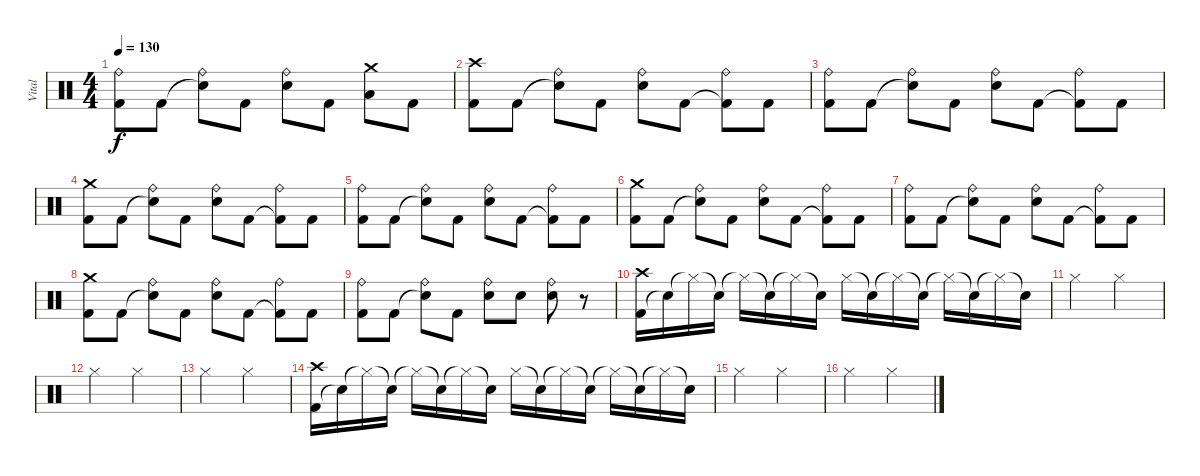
\track ("Vital" "Vital") {instrument percussion}
\staff {score}
\articulation defaults
\ts (4 4)
\tempo 130
\clef neutral
\ks c
("Kick (hit) 2" "Ride (bell)").8{dy f} "Kick (hit) 2".8 ("Snare (hit)"{t} "Ride (bell)").8 "Kick (hit) 2".8 ("Snare (hit) 2" "Ride (bell)").8 "Kick (hit) 2".8 ("Low Floor Tom (hit)" "Crash medium (hit)").8 "Kick (hit) 2".8 |
("Kick (hit) 2" "Crash high (hit)").8 "Kick (hit) 2".8 ("Snare (hit)"{t} "Ride (bell)").8 "Kick (hit) 2".8 ("Snare (hit) 2" "Ride (bell)").8 "Kick (hit) 2".8 ("Kick (hit) 2"{t} "Ride (bell)").8 "Kick (hit) 2".8 |
("Kick (hit) 2" "Ride (bell)").8 "Kick (hit) 2".8 ("Snare (hit)"{t} "Ride (bell)").8 "Kick (hit) 2".8 ("Snare (hit) 2" "Ride (bell)").8 "Kick (hit) 2".8 ("Kick (hit) 2"{t} "Ride (bell)").8 "Kick (hit) 2".8 |
("Kick (hit) 2" "Crash medium (hit)").8 "Kick (hit) 2".8 ("Snare (hit)"{t} "Ride (bell)").8 "Kick (hit) 2".8 ("Snare (hit) 2" "Ride (bell)").8 "Kick (hit) 2".8 ("Kick (hit) 2"{t} "Ride (bell)").8 "Kick (hit) 2".8 |
("Kick (hit) 2" "Ride (bell)").8 "Kick (hit) 2".8 ("Snare (hit)"{t} "Ride (bell)").8 "Kick (hit) 2".8 ("Snare (hit) 2" "Ride (bell)").8 "Kick (hit) 2".8 ("Kick (hit) 2"{t} "Ride (bell)").8 "Kick (hit) 2".8 |
("Kick (hit) 2" "Crash medium (hit)").8 "Kick (hit) 2".8 ("Snare (hit)"{t} "Ride (bell)").8 "Kick (hit) 2".8 ("Snare (hit) 2" "Ride (bell)").8 "Kick (hit) 2".8 ("Kick (hit) 2"{t} "Ride (bell)").8 "Kick (hit) 2".8 |
("Kick (hit) 2" "Ride (bell)").8 "Kick (hit) 2".8 ("Snare (hit)"{t} "Ride (bell)").8 "Kick (hit) 2".8 ("Snare (hit) 2" "Ride (bell)").8 "Kick (hit) 2".8 ("Kick (hit) 2"{t} "Ride (bell)").8 "Kick (hit) 2".8 |
("Kick (hit) 2" "Crash medium (hit)").8 "Kick (hit) 2".8 ("Snare (hit)"{t} "Ride (bell)").8 "Kick (hit) 2".8 ("Snare (hit) 2" "Ride (bell)").8 "Kick (hit) 2".8 ("Kick (hit) 2"{t} "Ride (bell)").8 "Kick (hit) 2".8 |
("Kick (hit) 2" "Ride (bell)").8 "Kick (hit) 2".8 ("Snare (hit)"{t} "Ride (bell)").8 "Kick (hit) 2".8 ("Snare (hit) 2" "Ride (bell)").8 "Snare (hit) 2".8 ("Snare (hit) 2" "Ride (bell)").8 r.8 |
("Kick (hit) 2" "Crash high (hit)").16 "Snare (hit)"{t}.16 "Hi-Hat (closed)"{t}.16 "Snare (hit)"{t}.16 "Hi-Hat (closed)"{t}.16 "Snare (hit)"{t}.16 "Hi-Hat (closed)"{t}.16 "Snare (hit)"{t}.16 "Hi-Hat (closed)".16 "Snare (hit)"{t}.16 "Hi-Hat (closed)"{t}.16 "Snare (hit)"{t}.16 "Hi-Hat (closed)"{t}.16 "Snare (hit)"{t}.16 "Hi-Hat (closed)"{t}.16 "Snare (hit)"{t}.16 |
"Hi-Hat (closed)".2 "Hi-Hat (closed)".2 |
"Hi-Hat (closed)".2 "Hi-Hat (closed)".2 |
"Hi-Hat (closed)".2 "Hi-Hat (closed)".2 |
("Kick (hit) 2" "Crash high (hit)").16 "Snare (hit)"{t}.16 "Hi-Hat (closed)"{t}.16 "Snare (hit)"{t}.16 "Hi-Hat (closed)"{t}.16 "Snare (hit)"{t}.16 "Hi-Hat (closed)"{t}.16 "Snare (hit)"{t}.16 "Hi-Hat (closed)".16 "Snare (hit)"{t}.16 "Hi-Hat (closed)"{t}.16 "Snare (hit)"{t}.16 "Hi-Hat (closed)"{t}.16 "Snare (hit)"{t}.16 "Hi-Hat (closed)"{t}.16 "Snare (hit)"{t}.16 |
"Hi-Hat (closed)".2 "Hi-Hat (closed)".2 |
"Hi-Hat (closed)".2 "Hi-Hat (closed)".2
